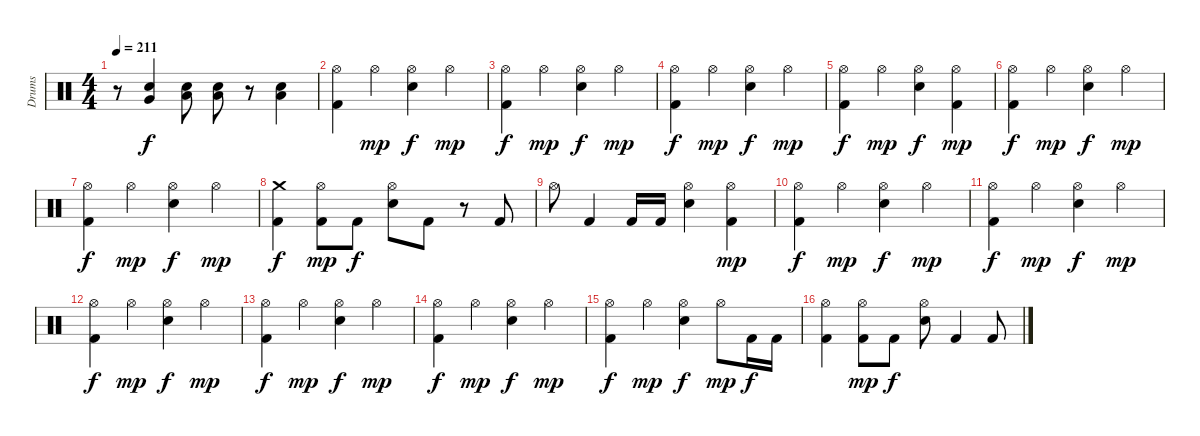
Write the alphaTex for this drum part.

\track ("Drums" "Drums") {instrument percussion}
\staff {score}
\articulation defaults
\ts (4 4)
\tempo 211
\clef neutral
\ks c
r.8{dy f} ("Snare (hit) 2" "Very Low Tom (hit)").4 ("Snare (hit) 2" "Low Floor Tom (hit)").8 ("Snare (hit) 2" "Low Floor Tom (hit)").8 r.8 ("Snare (hit) 2" "Low Floor Tom (hit)").4 |
("Kick (hit) 2" "Hi-Hat (open)").4 "Hi-Hat (open)".4{dy mp} ("Snare (hit) 2" "Hi-Hat (open)").4{dy f} "Hi-Hat (open)".4{dy mp} |
("Kick (hit) 2" "Hi-Hat (open)").4{dy f} "Hi-Hat (open)".4{dy mp} ("Snare (hit) 2" "Hi-Hat (open)").4{dy f} "Hi-Hat (open)".4{dy mp} |
("Kick (hit) 2" "Hi-Hat (open)").4{dy f} "Hi-Hat (open)".4{dy mp} ("Snare (hit) 2" "Hi-Hat (open)").4{dy f} "Hi-Hat (open)".4{dy mp} |
("Kick (hit) 2" "Hi-Hat (open)").4{dy f} "Hi-Hat (open)".4{dy mp} ("Snare (hit) 2" "Hi-Hat (open)").4{dy f} ("Kick (hit) 2" "Hi-Hat (open)").4{dy mp} |
("Kick (hit) 2" "Hi-Hat (open)").4{dy f} "Hi-Hat (open)".4{dy mp} ("Snare (hit) 2" "Hi-Hat (open)").4{dy f} "Hi-Hat (open)".4{dy mp} |
("Kick (hit) 2" "Hi-Hat (open)").4{dy f} "Hi-Hat (open)".4{dy mp} ("Snare (hit) 2" "Hi-Hat (open)").4{dy f} "Hi-Hat (open)".4{dy mp} |
("Kick (hit) 2" "Crash medium (hit)").4{dy f} ("Kick (hit) 2" "Hi-Hat (open)").8{dy mp} "Kick (hit) 2".8{dy f} ("Snare (hit) 2" "Hi-Hat (open)").8 "Kick (hit) 2".8 r.8 "Kick (hit) 2".8 |
"Hi-Hat (open)".8 "Kick (hit) 2".4 "Kick (hit) 2".16 "Kick (hit) 2".16 ("Snare (hit) 2" "Hi-Hat (open)").4 ("Kick (hit) 2" "Hi-Hat (open)").4{dy mp} |
("Kick (hit) 2" "Hi-Hat (open)").4{dy f} "Hi-Hat (open)".4{dy mp} ("Snare (hit) 2" "Hi-Hat (open)").4{dy f} "Hi-Hat (open)".4{dy mp} |
("Kick (hit) 2" "Hi-Hat (open)").4{dy f} "Hi-Hat (open)".4{dy mp} ("Snare (hit) 2" "Hi-Hat (open)").4{dy f} "Hi-Hat (open)".4{dy mp} |
("Kick (hit) 2" "Hi-Hat (open)").4{dy f} "Hi-Hat (open)".4{dy mp} ("Snare (hit) 2" "Hi-Hat (open)").4{dy f} "Hi-Hat (open)".4{dy mp} |
("Kick (hit) 2" "Hi-Hat (open)").4{dy f} "Hi-Hat (open)".4{dy mp} ("Snare (hit) 2" "Hi-Hat (open)").4{dy f} "Hi-Hat (open)".4{dy mp} |
("Kick (hit) 2" "Hi-Hat (open)").4{dy f} "Hi-Hat (open)".4{dy mp} ("Snare (hit) 2" "Hi-Hat (open)").4{dy f} "Hi-Hat (open)".4{dy mp} |
("Kick (hit) 2" "Hi-Hat (open)").4{dy f} "Hi-Hat (open)".4{dy mp} ("Snare (hit) 2" "Hi-Hat (open)").4{dy f} "Hi-Hat (open)".8{dy mp} "Kick (hit) 2".16{dy f} "Kick (hit) 2".16 |
("Kick (hit) 2" "Hi-Hat (open)").4 ("Kick (hit) 2" "Hi-Hat (open)").8{dy mp} "Kick (hit) 2".8{dy f} ("Snare (hit) 2" "Hi-Hat (open)").8 "Kick (hit) 2".4 "Kick (hit) 2".8
